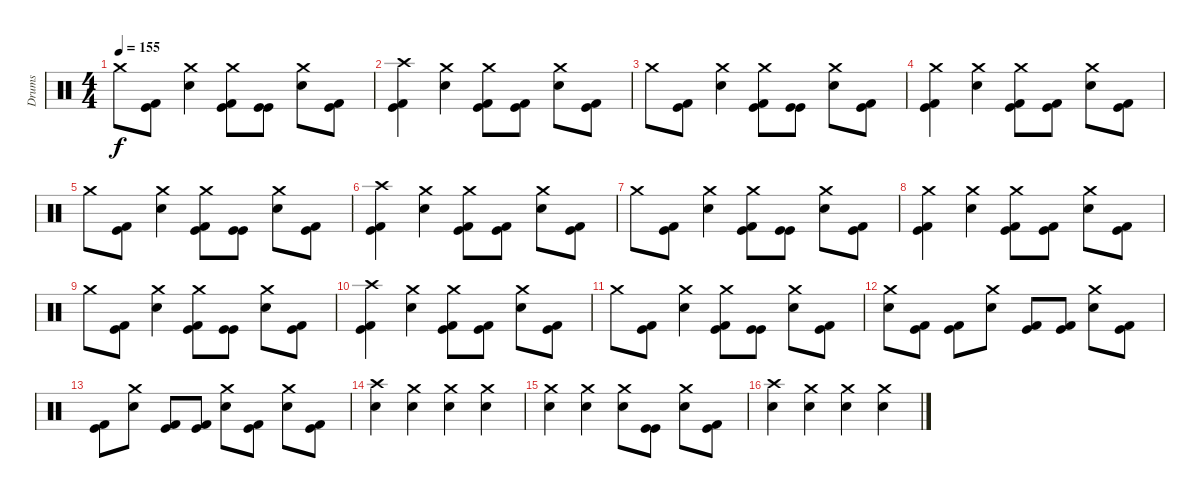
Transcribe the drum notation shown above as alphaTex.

\track ("Drums" "Drums") {instrument percussion}
\staff {score}
\articulation defaults
\ts (4 4)
\tempo 155
\clef neutral
\ks c "Crash medium (hit)".8{dy f}
("Kick (hit)" "Kick (hit) 2").8 ("Crash medium (hit)" "Electric Snare (hit)").4 ("Crash medium (hit)" "Kick (hit)" "Kick (hit) 2").8 ("Kick (hit)" "Kick (hit)").8 ("Crash medium (hit)" "Electric Snare (hit)").8 ("Kick (hit)" "Kick (hit) 2").8 |
("Crash high (hit)" "Kick (hit)" "Kick (hit) 2").4 ("Crash medium (hit)" "Electric Snare (hit)").4 ("Crash medium (hit)" "Kick (hit)" "Kick (hit) 2").8 ("Kick (hit)" "Kick (hit) 2").8 ("Crash medium (hit)" "Electric Snare (hit)").8 ("Kick (hit)" "Kick (hit) 2").8 |
"Crash medium (hit)".8 ("Kick (hit)" "Kick (hit) 2").8 ("Crash medium (hit)" "Electric Snare (hit)").4 ("Crash medium (hit)" "Kick (hit)" "Kick (hit) 2").8 ("Kick (hit)" "Kick (hit)").8 ("Crash medium (hit)" "Electric Snare (hit)").8 ("Kick (hit)" "Kick (hit) 2").8 |
("Crash medium (hit)" "Kick (hit)" "Kick (hit) 2").4 ("Crash medium (hit)" "Electric Snare (hit)").4 ("Crash medium (hit)" "Kick (hit)" "Kick (hit) 2").8 ("Kick (hit)" "Kick (hit) 2").8 ("Crash medium (hit)" "Electric Snare (hit)").8 ("Kick (hit)" "Kick (hit) 2").8 |
"Crash medium (hit)".8 ("Kick (hit)" "Kick (hit) 2").8 ("Crash medium (hit)" "Electric Snare (hit)").4 ("Crash medium (hit)" "Kick (hit)" "Kick (hit) 2").8 ("Kick (hit)" "Kick (hit)").8 ("Crash medium (hit)" "Electric Snare (hit)").8 ("Kick (hit)" "Kick (hit) 2").8 |
("Crash high (hit)" "Kick (hit)" "Kick (hit) 2").4 ("Crash medium (hit)" "Electric Snare (hit)").4 ("Crash medium (hit)" "Kick (hit)" "Kick (hit) 2").8 ("Kick (hit)" "Kick (hit) 2").8 ("Crash medium (hit)" "Electric Snare (hit)").8 ("Kick (hit)" "Kick (hit) 2").8 |
"Crash medium (hit)".8 ("Kick (hit)" "Kick (hit) 2").8 ("Crash medium (hit)" "Electric Snare (hit)").4 ("Crash medium (hit)" "Kick (hit)" "Kick (hit) 2").8 ("Kick (hit)" "Kick (hit)").8 ("Crash medium (hit)" "Electric Snare (hit)").8 ("Kick (hit)" "Kick (hit) 2").8 |
("Crash medium (hit)" "Kick (hit)" "Kick (hit) 2").4 ("Crash medium (hit)" "Electric Snare (hit)").4 ("Crash medium (hit)" "Kick (hit)" "Kick (hit) 2").8 ("Kick (hit)" "Kick (hit) 2").8 ("Crash medium (hit)" "Electric Snare (hit)").8 ("Kick (hit)" "Kick (hit) 2").8 |
"Crash medium (hit)".8 ("Kick (hit)" "Kick (hit) 2").8 ("Crash medium (hit)" "Electric Snare (hit)").4 ("Crash medium (hit)" "Kick (hit)" "Kick (hit) 2").8 ("Kick (hit)" "Kick (hit)").8 ("Crash medium (hit)" "Electric Snare (hit)").8 ("Kick (hit)" "Kick (hit) 2").8 |
("Crash high (hit)" "Kick (hit)" "Kick (hit) 2").4 ("Crash medium (hit)" "Electric Snare (hit)").4 ("Crash medium (hit)" "Kick (hit)" "Kick (hit) 2").8 ("Kick (hit)" "Kick (hit) 2").8 ("Crash medium (hit)" "Electric Snare (hit)").8 ("Kick (hit)" "Kick (hit) 2").8 |
"Crash medium (hit)".8 ("Kick (hit)" "Kick (hit) 2").8 ("Crash medium (hit)" "Electric Snare (hit)").4 ("Crash medium (hit)" "Kick (hit)" "Kick (hit) 2").8 ("Kick (hit)" "Kick (hit)").8 ("Crash medium (hit)" "Electric Snare (hit)").8 ("Kick (hit)" "Kick (hit) 2").8 |
("Crash medium (hit)" "Electric Snare (hit)").8 ("Kick (hit)" "Kick (hit) 2").8 ("Kick (hit)" "Kick (hit) 2").8 ("Crash medium (hit)" "Electric Snare (hit)").8 ("Kick (hit)" "Kick (hit) 2").8 ("Kick (hit)" "Kick (hit) 2").8 ("Crash medium (hit)" "Electric Snare (hit)").8 ("Kick (hit)" "Kick (hit) 2").8 |
("Kick (hit)" "Kick (hit) 2").8 ("Crash medium (hit)" "Electric Snare (hit)").8 ("Kick (hit)" "Kick (hit) 2").8 ("Kick (hit)" "Kick (hit) 2").8 ("Crash medium (hit)" "Electric Snare (hit)").8 ("Kick (hit)" "Kick (hit) 2").8 ("Crash medium (hit)" "Electric Snare (hit)").8 ("Kick (hit)" "Kick (hit) 2").8 |
("Crash high (hit)" "Electric Snare (hit)").4 ("Crash medium (hit)" "Electric Snare (hit)").4 ("Crash medium (hit)" "Electric Snare (hit)").4 ("Crash medium (hit)" "Electric Snare (hit)").4 |
("Crash medium (hit)" "Electric Snare (hit)").4 ("Crash medium (hit)" "Electric Snare (hit)").4 ("Crash medium (hit)" "Electric Snare (hit)").8 ("Kick (hit)" "Kick (hit)").8 ("Crash medium (hit)" "Electric Snare (hit)").8 ("Kick (hit)" "Kick (hit) 2").8 |
("Crash high (hit)" "Electric Snare (hit)").4 ("Crash medium (hit)" "Electric Snare (hit)").4 ("Crash medium (hit)" "Electric Snare (hit)").4 ("Crash medium (hit)" "Electric Snare (hit)").4
